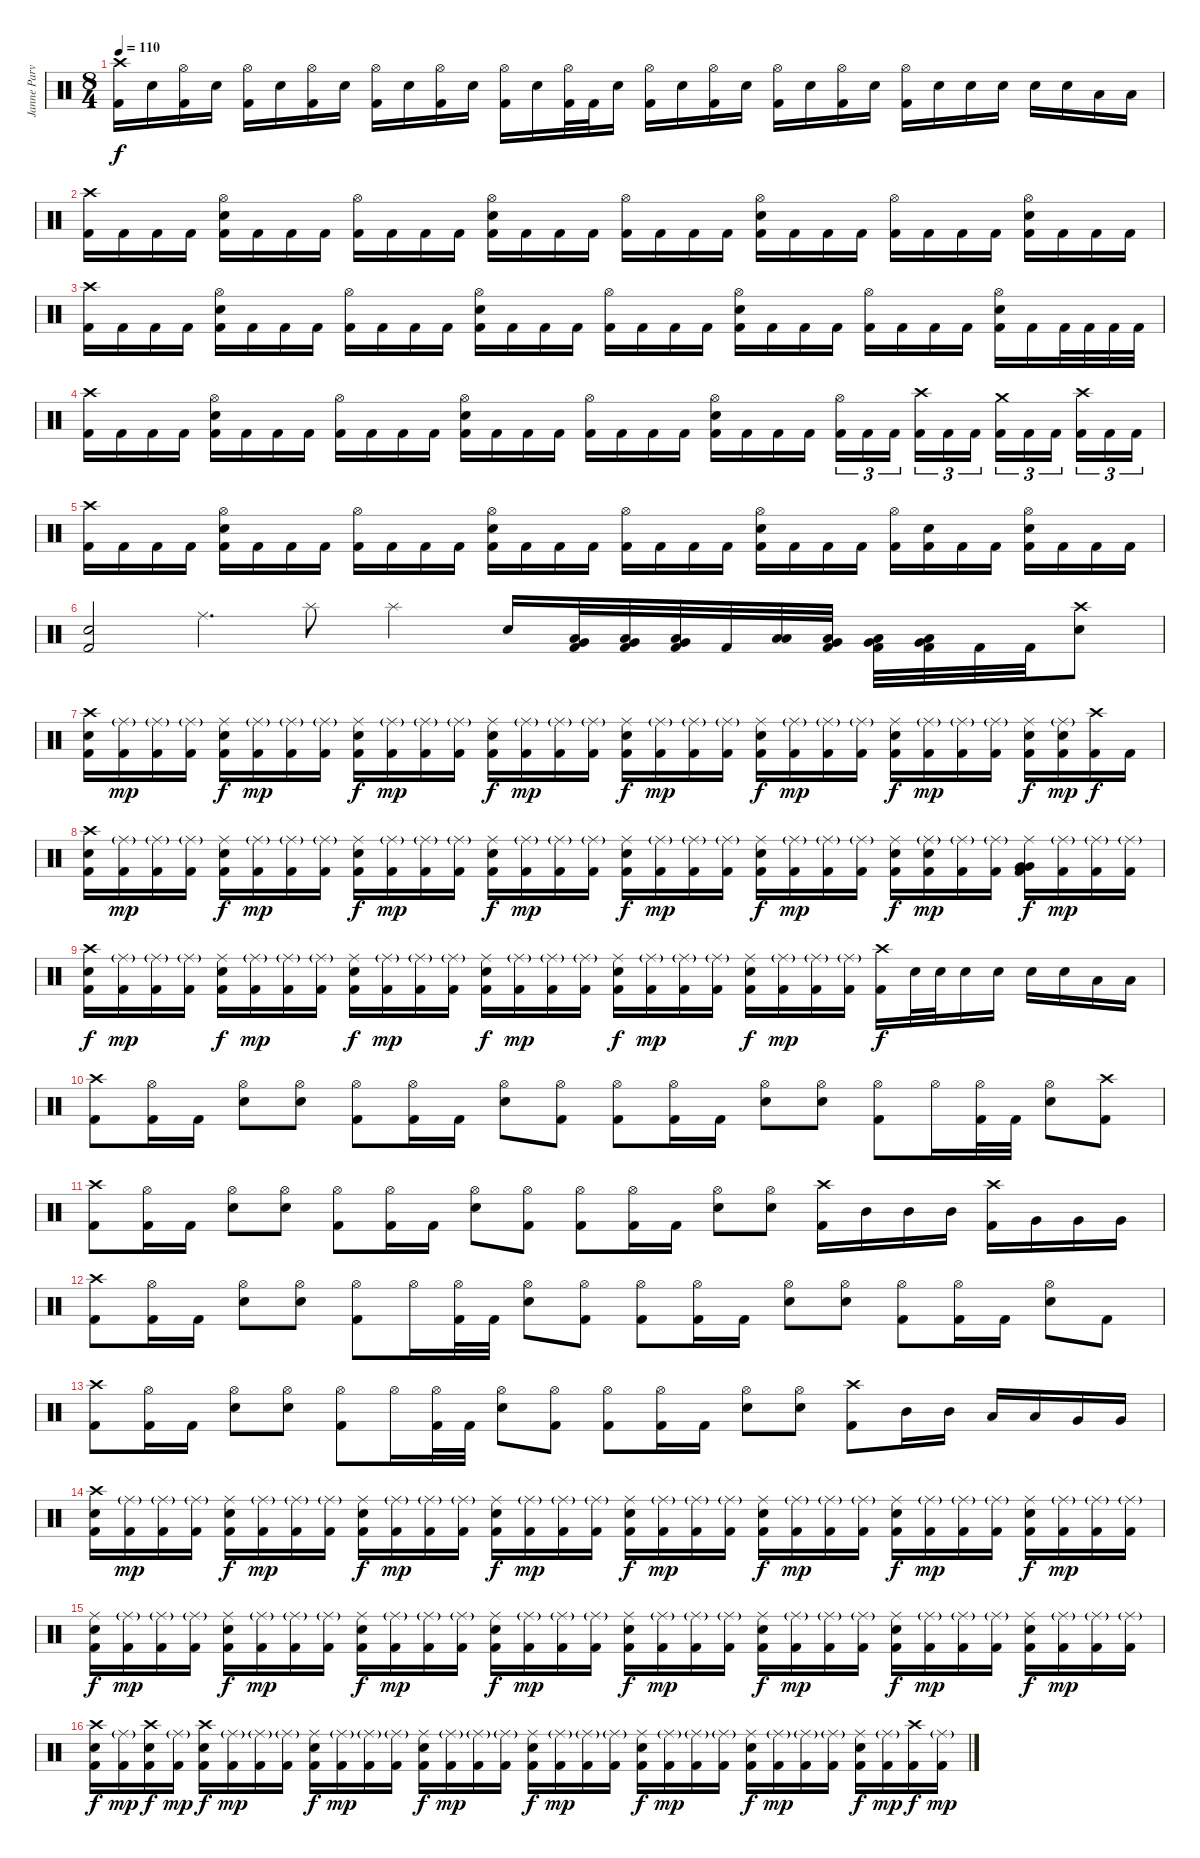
\track ("Janne Parviainen" "Janne Parv") {instrument percussion}
\staff {score}
\articulation defaults
\ts (8 4)
\tempo 110
\clef neutral
\ks c
("Crash high (hit)" "Kick (hit) 2").16{dy f} "Electric Snare (hit)".16 ("Hi-Hat (open)" "Kick (hit) 2").16 "Electric Snare (hit)".16 ("Hi-Hat (open)" "Kick (hit) 2").16 "Electric Snare (hit)".16 ("Hi-Hat (open)" "Kick (hit) 2").16 "Electric Snare (hit)".16 ("Hi-Hat (open)" "Kick (hit) 2").16 "Electric Snare (hit)".16 ("Hi-Hat (open)" "Kick (hit) 2").16 "Electric Snare (hit)".16 ("Hi-Hat (open)" "Kick (hit) 2").16 "Electric Snare (hit)".16 ("Hi-Hat (open)" "Kick (hit) 2").32 "Kick (hit) 2".32 "Electric Snare (hit)".16 ("Hi-Hat (open)" "Kick (hit) 2").16 "Electric Snare (hit)".16 ("Hi-Hat (open)" "Kick (hit) 2").16 "Electric Snare (hit)".16 ("Hi-Hat (open)" "Kick (hit) 2").16 "Electric Snare (hit)".16 ("Hi-Hat (open)" "Kick (hit) 2").16 "Electric Snare (hit)".16 ("Hi-Hat (open)" "Kick (hit) 2").16 "Electric Snare (hit)".16 "Electric Snare (hit)".16 "Electric Snare (hit)".16 "Electric Snare (hit)".16 "Electric Snare (hit)".16 "Low Tom (hit)".16 "Low Tom (hit)".16 |
("Crash high (hit)" "Kick (hit) 2").16 "Kick (hit) 2".16 "Kick (hit) 2".16 "Kick (hit) 2".16 ("Hi-Hat (open)" "Electric Snare (hit)" "Kick (hit) 2").16 "Kick (hit) 2".16 "Kick (hit) 2".16 "Kick (hit) 2".16 ("Hi-Hat (open)" "Kick (hit) 2").16 "Kick (hit) 2".16 "Kick (hit) 2".16 "Kick (hit) 2".16 ("Hi-Hat (open)" "Electric Snare (hit)" "Kick (hit) 2").16 "Kick (hit) 2".16 "Kick (hit) 2".16 "Kick (hit) 2".16 ("Hi-Hat (open)" "Kick (hit) 2").16 "Kick (hit) 2".16 "Kick (hit) 2".16 "Kick (hit) 2".16 ("Hi-Hat (open)" "Electric Snare (hit)" "Kick (hit) 2").16 "Kick (hit) 2".16 "Kick (hit) 2".16 "Kick (hit) 2".16 ("Hi-Hat (open)" "Kick (hit) 2").16 "Kick (hit) 2".16 "Kick (hit) 2".16 "Kick (hit) 2".16 ("Hi-Hat (open)" "Electric Snare (hit)" "Kick (hit) 2").16 "Kick (hit) 2".16 "Kick (hit) 2".16 "Kick (hit) 2".16 |
("Crash high (hit)" "Kick (hit) 2").16 "Kick (hit) 2".16 "Kick (hit) 2".16 "Kick (hit) 2".16 ("Hi-Hat (open)" "Electric Snare (hit)" "Kick (hit) 2").16 "Kick (hit) 2".16 "Kick (hit) 2".16 "Kick (hit) 2".16 ("Hi-Hat (open)" "Kick (hit) 2").16 "Kick (hit) 2".16 "Kick (hit) 2".16 "Kick (hit) 2".16 ("Hi-Hat (open)" "Electric Snare (hit)" "Kick (hit) 2").16 "Kick (hit) 2".16 "Kick (hit) 2".16 "Kick (hit) 2".16 ("Hi-Hat (open)" "Kick (hit) 2").16 "Kick (hit) 2".16 "Kick (hit) 2".16 "Kick (hit) 2".16 ("Hi-Hat (open)" "Electric Snare (hit)" "Kick (hit) 2").16 "Kick (hit) 2".16 "Kick (hit) 2".16 "Kick (hit) 2".16 ("Hi-Hat (open)" "Kick (hit) 2").16 "Kick (hit) 2".16 "Kick (hit) 2".16 "Kick (hit) 2".16 ("Hi-Hat (open)" "Electric Snare (hit)" "Kick (hit) 2").16 "Kick (hit) 2".16 "Kick (hit) 2".32 "Kick (hit) 2".32 "Kick (hit) 2".32 "Kick (hit) 2".32 |
("Crash high (hit)" "Kick (hit) 2").16 "Kick (hit) 2".16 "Kick (hit) 2".16 "Kick (hit) 2".16 ("Hi-Hat (open)" "Electric Snare (hit)" "Kick (hit) 2").16 "Kick (hit) 2".16 "Kick (hit) 2".16 "Kick (hit) 2".16 ("Hi-Hat (open)" "Kick (hit) 2").16 "Kick (hit) 2".16 "Kick (hit) 2".16 "Kick (hit) 2".16 ("Hi-Hat (open)" "Electric Snare (hit)" "Kick (hit) 2").16 "Kick (hit) 2".16 "Kick (hit) 2".16 "Kick (hit) 2".16 ("Hi-Hat (open)" "Kick (hit) 2").16 "Kick (hit) 2".16 "Kick (hit) 2".16 "Kick (hit) 2".16 ("Hi-Hat (open)" "Electric Snare (hit)" "Kick (hit) 2").16 "Kick (hit) 2".16 "Kick (hit) 2".16 "Kick (hit) 2".16 ("Hi-Hat (open)" "Kick (hit) 2").16{tu (3 2)} "Kick (hit) 2".16{tu (3 2)} "Kick (hit) 2".16{tu (3 2) beam splitsecondary} ("Crash high (hit)" "Kick (hit) 2").16{tu (3 2)} "Kick (hit) 2".16{tu (3 2)} "Kick (hit) 2".16{tu (3 2)} ("Crash medium (hit)" "Kick (hit) 2").16{tu (3 2)} "Kick (hit) 2".16{tu (3 2)} "Kick (hit) 2".16{tu (3 2) beam splitsecondary} ("Crash high (hit)" "Kick (hit) 2").16{tu (3 2)} "Kick (hit) 2".16{tu (3 2)} "Kick (hit) 2".16{tu (3 2)} |
("Crash high (hit)" "Kick (hit) 2").16 "Kick (hit) 2".16 "Kick (hit) 2".16 "Kick (hit) 2".16 ("Hi-Hat (open)" "Electric Snare (hit)" "Kick (hit) 2").16 "Kick (hit) 2".16 "Kick (hit) 2".16 "Kick (hit) 2".16 ("Hi-Hat (open)" "Kick (hit) 2").16 "Kick (hit) 2".16 "Kick (hit) 2".16 "Kick (hit) 2".16 ("Hi-Hat (open)" "Electric Snare (hit)" "Kick (hit) 2").16 "Kick (hit) 2".16 "Kick (hit) 2".16 "Kick (hit) 2".16 ("Hi-Hat (open)" "Kick (hit) 2").16 "Kick (hit) 2".16 "Kick (hit) 2".16 "Kick (hit) 2".16 ("Hi-Hat (open)" "Electric Snare (hit)" "Kick (hit) 2").16 "Kick (hit) 2".16 "Kick (hit) 2".16 "Kick (hit) 2".16 ("Hi-Hat (open)" "Kick (hit) 2").16 ("Electric Snare (hit)" "Kick (hit) 2").16 "Kick (hit) 2".16 "Kick (hit) 2".16 ("Hi-Hat (open)" "Electric Snare (hit)" "Kick (hit) 2").16 "Kick (hit) 2".16 "Kick (hit) 2".16 "Kick (hit) 2".16 |
("Electric Snare (hit)" "Kick (hit) 2").2 "Ride (middle)".4{d} "Splash (hit)".8 "Splash (hit)".2 "Electric Snare (hit)".16 ("Low Floor Tom (hit)" "Very Low Tom (hit)" "Kick (hit) 2").32 ("Low Floor Tom (hit)" "Very Low Tom (hit)" "Kick (hit) 2").32 ("Low Floor Tom (hit)" "Very Low Tom (hit)" "Kick (hit) 2").32 "Kick (hit) 2".32 ("Low Tom (hit)" "Low Tom (hit)").32 ("Low Floor Tom (hit)" "Very Low Tom (hit)" "Kick (hit) 2").32 ("Low Floor Tom (hit)" "Very Low Tom (hit)" "Kick (hit) 2").32 ("Low Floor Tom (hit)" "Very Low Tom (hit)" "Kick (hit) 2").32 "Kick (hit) 2".32 "Kick (hit) 2".32 ("Crash high (hit)" "Electric Snare (hit)").8 |
("Crash high (hit)" "Electric Snare (hit)" "Kick (hit) 2").16 ("Ride (middle)"{g} "Kick (hit) 2").16{dy mp} ("Ride (middle)"{g} "Kick (hit) 2").16 ("Ride (middle)"{g} "Kick (hit) 2").16 ("Ride (middle)" "Electric Snare (hit)" "Kick (hit) 2").16{dy f} ("Ride (middle)"{g} "Kick (hit) 2").16{dy mp} ("Ride (middle)"{g} "Kick (hit) 2").16 ("Ride (middle)"{g} "Kick (hit) 2").16 ("Ride (middle)" "Electric Snare (hit)" "Kick (hit) 2").16{dy f} ("Ride (middle)"{g} "Kick (hit) 2").16{dy mp} ("Ride (middle)"{g} "Kick (hit) 2").16 ("Ride (middle)"{g} "Kick (hit) 2").16 ("Ride (middle)" "Electric Snare (hit)" "Kick (hit) 2").16{dy f} ("Ride (middle)"{g} "Kick (hit) 2").16{dy mp} ("Ride (middle)"{g} "Kick (hit) 2").16 ("Ride (middle)"{g} "Kick (hit) 2").16 ("Ride (middle)" "Electric Snare (hit)" "Kick (hit) 2").16{dy f} ("Ride (middle)"{g} "Kick (hit) 2").16{dy mp} ("Ride (middle)"{g} "Kick (hit) 2").16 ("Ride (middle)"{g} "Kick (hit) 2").16 ("Ride (middle)" "Electric Snare (hit)" "Kick (hit) 2").16{dy f} ("Ride (middle)"{g} "Kick (hit) 2").16{dy mp} ("Ride (middle)"{g} "Kick (hit) 2").16 ("Ride (middle)"{g} "Kick (hit) 2").16 ("Ride (middle)" "Electric Snare (hit)" "Kick (hit) 2").16{dy f} ("Ride (middle)"{g} "Kick (hit) 2").16{dy mp} ("Ride (middle)"{g} "Kick (hit) 2").16 ("Ride (middle)"{g} "Kick (hit) 2").16 ("Ride (middle)" "Electric Snare (hit)" "Kick (hit) 2").16{dy f} ("Ride (middle)"{g} "Electric Snare (hit)" "Kick (hit) 2").16{dy mp} ("Crash high (hit)" "Kick (hit) 2").16{dy f} "Kick (hit) 2".16 |
("Crash high (hit)" "Electric Snare (hit)" "Kick (hit) 2").16 ("Ride (middle)"{g} "Kick (hit) 2").16{dy mp} ("Ride (middle)"{g} "Kick (hit) 2").16 ("Ride (middle)"{g} "Kick (hit) 2").16 ("Ride (middle)" "Electric Snare (hit)" "Kick (hit) 2").16{dy f} ("Ride (middle)"{g} "Kick (hit) 2").16{dy mp} ("Ride (middle)"{g} "Kick (hit) 2").16 ("Ride (middle)"{g} "Kick (hit) 2").16 ("Ride (middle)" "Electric Snare (hit)" "Kick (hit) 2").16{dy f} ("Ride (middle)"{g} "Kick (hit) 2").16{dy mp} ("Ride (middle)"{g} "Kick (hit) 2").16 ("Ride (middle)"{g} "Kick (hit) 2").16 ("Ride (middle)" "Electric Snare (hit)" "Kick (hit) 2").16{dy f} ("Ride (middle)"{g} "Kick (hit) 2").16{dy mp} ("Ride (middle)"{g} "Kick (hit) 2").16 ("Ride (middle)"{g} "Kick (hit) 2").16 ("Ride (middle)" "Electric Snare (hit)" "Kick (hit) 2").16{dy f} ("Ride (middle)"{g} "Kick (hit) 2").16{dy mp} ("Ride (middle)"{g} "Kick (hit) 2").16 ("Ride (middle)"{g} "Kick (hit) 2").16 ("Ride (middle)" "Electric Snare (hit)" "Kick (hit) 2").16{dy f} ("Ride (middle)"{g} "Kick (hit) 2").16{dy mp} ("Ride (middle)"{g} "Kick (hit) 2").16 ("Ride (middle)"{g} "Kick (hit) 2").16 ("Ride (middle)" "Electric Snare (hit)" "Kick (hit) 2").16{dy f} ("Ride (middle)"{g} "Electric Snare (hit)" "Kick (hit) 2").16{dy mp} ("Ride (middle)"{g} "Kick (hit) 2").16 ("Ride (middle)"{g} "Kick (hit) 2").16 ("Ride (middle)" "Very Low Tom (hit)" "Very Low Tom (hit)" "Kick (hit) 2").16{dy f} ("Ride (middle)"{g} "Kick (hit) 2").16{dy mp} ("Ride (middle)"{g} "Kick (hit) 2").16 ("Ride (middle)"{g} "Kick (hit) 2").16 |
("Crash high (hit)" "Electric Snare (hit)" "Kick (hit) 2").16{dy f} ("Ride (middle)"{g} "Kick (hit) 2").16{dy mp} ("Ride (middle)"{g} "Kick (hit) 2").16 ("Ride (middle)"{g} "Kick (hit) 2").16 ("Ride (middle)" "Electric Snare (hit)" "Kick (hit) 2").16{dy f} ("Ride (middle)"{g} "Kick (hit) 2").16{dy mp} ("Ride (middle)"{g} "Kick (hit) 2").16 ("Ride (middle)"{g} "Kick (hit) 2").16 ("Ride (middle)" "Electric Snare (hit)" "Kick (hit) 2").16{dy f} ("Ride (middle)"{g} "Kick (hit) 2").16{dy mp} ("Ride (middle)"{g} "Kick (hit) 2").16 ("Ride (middle)"{g} "Kick (hit) 2").16 ("Ride (middle)" "Electric Snare (hit)" "Kick (hit) 2").16{dy f} ("Ride (middle)"{g} "Kick (hit) 2").16{dy mp} ("Ride (middle)"{g} "Kick (hit) 2").16 ("Ride (middle)"{g} "Kick (hit) 2").16 ("Ride (middle)" "Electric Snare (hit)" "Kick (hit) 2").16{dy f} ("Ride (middle)"{g} "Kick (hit) 2").16{dy mp} ("Ride (middle)"{g} "Kick (hit) 2").16 ("Ride (middle)"{g} "Kick (hit) 2").16 ("Ride (middle)" "Electric Snare (hit)" "Kick (hit) 2").16{dy f} ("Ride (middle)"{g} "Kick (hit) 2").16{dy mp} ("Ride (middle)"{g} "Kick (hit) 2").16 ("Ride (middle)"{g} "Kick (hit) 2").16 ("Crash high (hit)" "Kick (hit) 2").16{dy f} "Electric Snare (hit)".32 "Electric Snare (hit)".32 "Electric Snare (hit)".16 "Electric Snare (hit)".16 "Electric Snare (hit)".16 "Electric Snare (hit)".16 "Low Tom (hit)".16 "Low Tom (hit)".16 |
("Crash high (hit)" "Kick (hit) 2").8 ("Hi-Hat (open)" "Kick (hit) 2").16 "Kick (hit) 2".16 ("Hi-Hat (open)" "Electric Snare (hit)").8 ("Hi-Hat (open)" "Electric Snare (hit)").8 ("Hi-Hat (open)" "Kick (hit) 2").8 ("Hi-Hat (open)" "Kick (hit) 2").16 "Kick (hit) 2".16 ("Hi-Hat (open)" "Electric Snare (hit)").8 ("Hi-Hat (open)" "Kick (hit) 2").8 ("Hi-Hat (open)" "Kick (hit) 2").8 ("Hi-Hat (open)" "Kick (hit) 2").16 "Kick (hit) 2".16 ("Hi-Hat (open)" "Electric Snare (hit)").8 ("Hi-Hat (open)" "Electric Snare (hit)").8 ("Hi-Hat (open)" "Kick (hit) 2").8 "Hi-Hat (open)".16 ("Hi-Hat (open)" "Kick (hit) 2").32 "Kick (hit) 2".32 ("Hi-Hat (open)" "Electric Snare (hit)").8 ("Crash high (hit)" "Kick (hit) 2").8 |
("Crash high (hit)" "Kick (hit) 2").8 ("Hi-Hat (open)" "Kick (hit) 2").16 "Kick (hit) 2".16 ("Hi-Hat (open)" "Electric Snare (hit)").8 ("Hi-Hat (open)" "Electric Snare (hit)").8 ("Hi-Hat (open)" "Kick (hit) 2").8 ("Hi-Hat (open)" "Kick (hit) 2").16 "Kick (hit) 2".16 ("Hi-Hat (open)" "Electric Snare (hit)").8 ("Hi-Hat (open)" "Kick (hit) 2").8 ("Hi-Hat (open)" "Kick (hit) 2").8 ("Hi-Hat (open)" "Kick (hit) 2").16 "Kick (hit) 2".16 ("Hi-Hat (open)" "Electric Snare (hit)").8 ("Hi-Hat (open)" "Electric Snare (hit)").8 ("Crash high (hit)" "Kick (hit) 2").16 "Mid Tom (hit)".16 "Mid Tom (hit)".16 "Mid Tom (hit)".16 ("Crash high (hit)" "Kick (hit) 2").16 "Very Low Tom (hit)".16 "Very Low Tom (hit)".16 "Very Low Tom (hit)".16 |
("Crash high (hit)" "Kick (hit) 2").8 ("Hi-Hat (open)" "Kick (hit) 2").16 "Kick (hit) 2".16 ("Hi-Hat (open)" "Electric Snare (hit)").8 ("Hi-Hat (open)" "Electric Snare (hit)").8 ("Hi-Hat (open)" "Kick (hit) 2").8 "Hi-Hat (open)".16 ("Hi-Hat (open)" "Kick (hit) 2").32 "Kick (hit) 2".32 ("Hi-Hat (open)" "Electric Snare (hit)").8 ("Hi-Hat (open)" "Kick (hit) 2").8 ("Hi-Hat (open)" "Kick (hit) 2").8 ("Hi-Hat (open)" "Kick (hit) 2").16 "Kick (hit) 2".16 ("Hi-Hat (open)" "Electric Snare (hit)").8 ("Hi-Hat (open)" "Electric Snare (hit)").8 ("Hi-Hat (open)" "Kick (hit) 2").8 ("Hi-Hat (open)" "Kick (hit) 2").16 "Kick (hit) 2".16 ("Hi-Hat (open)" "Electric Snare (hit)").8 "Kick (hit) 2".8 |
("Crash high (hit)" "Kick (hit) 2").8 ("Hi-Hat (open)" "Kick (hit) 2").16 "Kick (hit) 2".16 ("Hi-Hat (open)" "Electric Snare (hit)").8 ("Hi-Hat (open)" "Electric Snare (hit)").8 ("Hi-Hat (open)" "Kick (hit) 2").8 "Hi-Hat (open)".16 ("Hi-Hat (open)" "Kick (hit) 2").32 "Kick (hit) 2".32 ("Hi-Hat (open)" "Electric Snare (hit)").8 ("Hi-Hat (open)" "Kick (hit) 2").8 ("Hi-Hat (open)" "Kick (hit) 2").8 ("Hi-Hat (open)" "Kick (hit) 2").16 "Kick (hit) 2".16 ("Hi-Hat (open)" "Electric Snare (hit)").8 ("Hi-Hat (open)" "Electric Snare (hit)").8 ("Crash high (hit)" "Kick (hit) 2").8 "Mid Tom (hit)".16 "Mid Tom (hit)".16 "Low Tom (hit)".16 "Low Tom (hit)".16 "Very Low Tom (hit)".16 "Very Low Tom (hit)".16 |
("Crash high (hit)" "Electric Snare (hit)" "Kick (hit) 2").16 ("Ride (middle)"{g} "Kick (hit) 2").16{dy mp} ("Ride (middle)"{g} "Kick (hit) 2").16 ("Ride (middle)"{g} "Kick (hit) 2").16 ("Ride (middle)" "Electric Snare (hit)" "Kick (hit) 2").16{dy f} ("Ride (middle)"{g} "Kick (hit) 2").16{dy mp} ("Ride (middle)"{g} "Kick (hit) 2").16 ("Ride (middle)"{g} "Kick (hit) 2").16 ("Ride (middle)" "Electric Snare (hit)" "Kick (hit) 2").16{dy f} ("Ride (middle)"{g} "Kick (hit) 2").16{dy mp} ("Ride (middle)"{g} "Kick (hit) 2").16 ("Ride (middle)"{g} "Kick (hit) 2").16 ("Ride (middle)" "Electric Snare (hit)" "Kick (hit) 2").16{dy f} ("Ride (middle)"{g} "Kick (hit) 2").16{dy mp} ("Ride (middle)"{g} "Kick (hit) 2").16 ("Ride (middle)"{g} "Kick (hit) 2").16 ("Ride (middle)" "Electric Snare (hit)" "Kick (hit) 2").16{dy f} ("Ride (middle)"{g} "Kick (hit) 2").16{dy mp} ("Ride (middle)"{g} "Kick (hit) 2").16 ("Ride (middle)"{g} "Kick (hit) 2").16 ("Ride (middle)" "Electric Snare (hit)" "Kick (hit) 2").16{dy f} ("Ride (middle)"{g} "Kick (hit) 2").16{dy mp} ("Ride (middle)"{g} "Kick (hit) 2").16 ("Ride (middle)"{g} "Kick (hit) 2").16 ("Ride (middle)" "Electric Snare (hit)" "Kick (hit) 2").16{dy f} ("Ride (middle)"{g} "Kick (hit) 2").16{dy mp} ("Ride (middle)"{g} "Kick (hit) 2").16 ("Ride (middle)"{g} "Kick (hit) 2").16 ("Ride (middle)" "Electric Snare (hit)" "Kick (hit) 2").16{dy f} ("Ride (middle)"{g} "Kick (hit) 2").16{dy mp} ("Ride (middle)"{g} "Kick (hit) 2").16 ("Ride (middle)"{g} "Kick (hit) 2").16 |
("Ride (middle)" "Electric Snare (hit)" "Kick (hit) 2").16{dy f} ("Ride (middle)"{g} "Kick (hit) 2").16{dy mp} ("Ride (middle)"{g} "Kick (hit) 2").16 ("Ride (middle)"{g} "Kick (hit) 2").16 ("Ride (middle)" "Electric Snare (hit)" "Kick (hit) 2").16{dy f} ("Ride (middle)"{g} "Kick (hit) 2").16{dy mp} ("Ride (middle)"{g} "Kick (hit) 2").16 ("Ride (middle)"{g} "Kick (hit) 2").16 ("Ride (middle)" "Electric Snare (hit)" "Kick (hit) 2").16{dy f} ("Ride (middle)"{g} "Kick (hit) 2").16{dy mp} ("Ride (middle)"{g} "Kick (hit) 2").16 ("Ride (middle)"{g} "Kick (hit) 2").16 ("Ride (middle)" "Electric Snare (hit)" "Kick (hit) 2").16{dy f} ("Ride (middle)"{g} "Kick (hit) 2").16{dy mp} ("Ride (middle)"{g} "Kick (hit) 2").16 ("Ride (middle)"{g} "Kick (hit) 2").16 ("Ride (middle)" "Electric Snare (hit)" "Kick (hit) 2").16{dy f} ("Ride (middle)"{g} "Kick (hit) 2").16{dy mp} ("Ride (middle)"{g} "Kick (hit) 2").16 ("Ride (middle)"{g} "Kick (hit) 2").16 ("Ride (middle)" "Electric Snare (hit)" "Kick (hit) 2").16{dy f} ("Ride (middle)"{g} "Kick (hit) 2").16{dy mp} ("Ride (middle)"{g} "Kick (hit) 2").16 ("Ride (middle)"{g} "Kick (hit) 2").16 ("Ride (middle)" "Electric Snare (hit)" "Kick (hit) 2").16{dy f} ("Ride (middle)"{g} "Kick (hit) 2").16{dy mp} ("Ride (middle)"{g} "Kick (hit) 2").16 ("Ride (middle)"{g} "Kick (hit) 2").16 ("Ride (middle)" "Electric Snare (hit)" "Kick (hit) 2").16{dy f} ("Ride (middle)"{g} "Kick (hit) 2").16{dy mp} ("Ride (middle)"{g} "Kick (hit) 2").16 ("Ride (middle)"{g} "Kick (hit) 2").16 |
("Crash high (hit)" "Electric Snare (hit)" "Kick (hit) 2").16{dy f} ("Ride (middle)"{g} "Kick (hit) 2").16{dy mp} ("Crash high (hit)" "Electric Snare (hit)" "Kick (hit) 2").16{dy f} ("Ride (middle)"{g} "Kick (hit) 2").16{dy mp} ("Crash high (hit)" "Electric Snare (hit)" "Kick (hit) 2").16{dy f} ("Ride (middle)"{g} "Kick (hit) 2").16{dy mp} ("Ride (middle)"{g} "Kick (hit) 2").16 ("Ride (middle)"{g} "Kick (hit) 2").16 ("Ride (middle)" "Electric Snare (hit)" "Kick (hit) 2").16{dy f} ("Ride (middle)"{g} "Kick (hit) 2").16{dy mp} ("Ride (middle)"{g} "Kick (hit) 2").16 ("Ride (middle)"{g} "Kick (hit) 2").16 ("Ride (middle)" "Electric Snare (hit)" "Kick (hit) 2").16{dy f} ("Ride (middle)"{g} "Kick (hit) 2").16{dy mp} ("Ride (middle)"{g} "Kick (hit) 2").16 ("Ride (middle)"{g} "Kick (hit) 2").16 ("Ride (middle)" "Electric Snare (hit)" "Kick (hit) 2").16{dy f} ("Ride (middle)"{g} "Kick (hit) 2").16{dy mp} ("Ride (middle)"{g} "Kick (hit) 2").16 ("Ride (middle)"{g} "Kick (hit) 2").16 ("Ride (middle)" "Electric Snare (hit)" "Kick (hit) 2").16{dy f} ("Ride (middle)"{g} "Kick (hit) 2").16{dy mp} ("Ride (middle)"{g} "Kick (hit) 2").16 ("Ride (middle)"{g} "Kick (hit) 2").16 ("Ride (middle)" "Electric Snare (hit)" "Kick (hit) 2").16{dy f} ("Ride (middle)"{g} "Kick (hit) 2").16{dy mp} ("Ride (middle)"{g} "Kick (hit) 2").16 ("Ride (middle)"{g} "Kick (hit) 2").16 ("Ride (middle)" "Electric Snare (hit)" "Kick (hit) 2").16{dy f} ("Ride (middle)"{g} "Kick (hit) 2").16{dy mp} ("Crash high (hit)" "Kick (hit) 2").16{dy f} ("Ride (middle)"{g} "Kick (hit) 2").16{dy mp}
